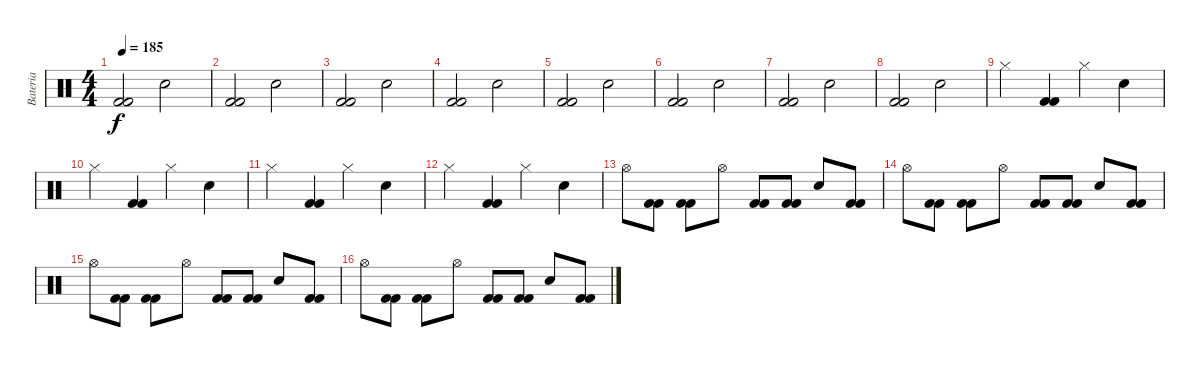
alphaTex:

\track ("Bateria" "Bateria") {instrument percussion}
\staff {score}
\articulation defaults
\ts (4 4)
\tempo 185
\clef neutral
\ks c
("Kick (hit) 2" "Kick (hit) 2").2{dy f} "Electric Snare (hit)".2 |
("Kick (hit) 2" "Kick (hit) 2").2 "Electric Snare (hit)".2 |
("Kick (hit) 2" "Kick (hit) 2").2 "Electric Snare (hit)".2 |
("Kick (hit) 2" "Kick (hit) 2").2 "Electric Snare (hit)".2 |
("Kick (hit) 2" "Kick (hit) 2").2 "Electric Snare (hit)".2 |
("Kick (hit) 2" "Kick (hit) 2").2 "Electric Snare (hit)".2 |
("Kick (hit) 2" "Kick (hit) 2").2 "Electric Snare (hit)".2 |
("Kick (hit) 2" "Kick (hit) 2").2 "Electric Snare (hit)".2 |
"Hi-Hat (closed)".4 ("Kick (hit) 2" "Kick (hit) 2").4 "Hi-Hat (closed)".4 "Electric Snare (hit)".4 |
"Hi-Hat (closed)".4 ("Kick (hit) 2" "Kick (hit) 2").4 "Hi-Hat (closed)".4 "Electric Snare (hit)".4 |
"Hi-Hat (closed)".4 ("Kick (hit) 2" "Kick (hit) 2").4 "Hi-Hat (closed)".4 "Electric Snare (hit)".4 |
"Hi-Hat (closed)".4 ("Kick (hit) 2" "Kick (hit) 2").4 "Hi-Hat (closed)".4 "Electric Snare (hit)".4 |
"Hi-Hat (open)".8 ("Kick (hit) 2" "Kick (hit) 2").8 ("Kick (hit) 2" "Kick (hit) 2").8 "Hi-Hat (open)".8 ("Kick (hit) 2" "Kick (hit) 2").8 ("Kick (hit) 2" "Kick (hit) 2").8 "Electric Snare (hit)".8 ("Kick (hit) 2" "Kick (hit) 2").8 |
"Hi-Hat (open)".8 ("Kick (hit) 2" "Kick (hit) 2").8 ("Kick (hit) 2" "Kick (hit) 2").8 "Hi-Hat (open)".8 ("Kick (hit) 2" "Kick (hit) 2").8 ("Kick (hit) 2" "Kick (hit) 2").8 "Electric Snare (hit)".8 ("Kick (hit) 2" "Kick (hit) 2").8 |
"Hi-Hat (open)".8 ("Kick (hit) 2" "Kick (hit) 2").8 ("Kick (hit) 2" "Kick (hit) 2").8 "Hi-Hat (open)".8 ("Kick (hit) 2" "Kick (hit) 2").8 ("Kick (hit) 2" "Kick (hit) 2").8 "Electric Snare (hit)".8 ("Kick (hit) 2" "Kick (hit) 2").8 |
"Hi-Hat (open)".8 ("Kick (hit) 2" "Kick (hit) 2").8 ("Kick (hit) 2" "Kick (hit) 2").8 "Hi-Hat (open)".8 ("Kick (hit) 2" "Kick (hit) 2").8 ("Kick (hit) 2" "Kick (hit) 2").8 "Electric Snare (hit)".8 ("Kick (hit) 2" "Kick (hit) 2").8
